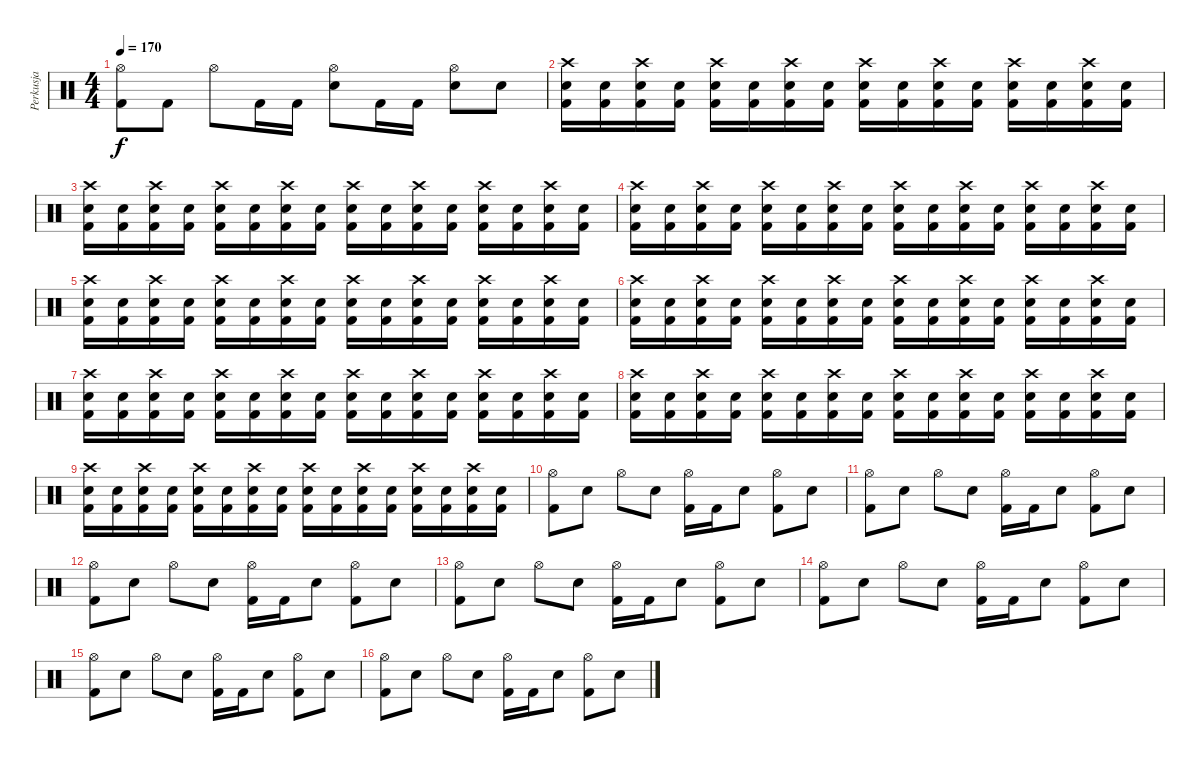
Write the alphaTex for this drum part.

\track ("Perkusja" "Perkusja") {instrument percussion}
\staff {score}
\articulation defaults
\ts (4 4)
\tempo 170
\clef neutral
\ks c
("Hi-Hat (open)" "Kick (hit) 2").8{dy f} "Kick (hit) 2".8 "Hi-Hat (open)".8 "Kick (hit) 2".16 "Kick (hit) 2".16 ("Hi-Hat (open)" "Electric Snare (hit)").8 "Kick (hit) 2".16 "Kick (hit) 2".16 ("Hi-Hat (open)" "Electric Snare (hit)").8 "Electric Snare (hit)".8 |
("Crash high (hit)" "Electric Snare (hit)" "Kick (hit) 2").16 ("Electric Snare (hit)" "Kick (hit) 2").16 ("Crash high (hit)" "Electric Snare (hit)" "Kick (hit) 2").16 ("Electric Snare (hit)" "Kick (hit) 2").16 ("Crash high (hit)" "Electric Snare (hit)" "Kick (hit) 2").16 ("Electric Snare (hit)" "Kick (hit) 2").16 ("Crash high (hit)" "Electric Snare (hit)" "Kick (hit) 2").16 ("Electric Snare (hit)" "Kick (hit) 2").16 ("Crash high (hit)" "Electric Snare (hit)" "Kick (hit) 2").16 ("Electric Snare (hit)" "Kick (hit) 2").16 ("Crash high (hit)" "Electric Snare (hit)" "Kick (hit) 2").16 ("Electric Snare (hit)" "Kick (hit) 2").16 ("Crash high (hit)" "Electric Snare (hit)" "Kick (hit) 2").16 ("Electric Snare (hit)" "Kick (hit) 2").16 ("Crash high (hit)" "Electric Snare (hit)" "Kick (hit) 2").16 ("Electric Snare (hit)" "Kick (hit) 2").16 |
("Crash high (hit)" "Electric Snare (hit)" "Kick (hit) 2").16 ("Electric Snare (hit)" "Kick (hit) 2").16 ("Crash high (hit)" "Electric Snare (hit)" "Kick (hit) 2").16 ("Electric Snare (hit)" "Kick (hit) 2").16 ("Crash high (hit)" "Electric Snare (hit)" "Kick (hit) 2").16 ("Electric Snare (hit)" "Kick (hit) 2").16 ("Crash high (hit)" "Electric Snare (hit)" "Kick (hit) 2").16 ("Electric Snare (hit)" "Kick (hit) 2").16 ("Crash high (hit)" "Electric Snare (hit)" "Kick (hit) 2").16 ("Electric Snare (hit)" "Kick (hit) 2").16 ("Crash high (hit)" "Electric Snare (hit)" "Kick (hit) 2").16 ("Electric Snare (hit)" "Kick (hit) 2").16 ("Crash high (hit)" "Electric Snare (hit)" "Kick (hit) 2").16 ("Electric Snare (hit)" "Kick (hit) 2").16 ("Crash high (hit)" "Electric Snare (hit)" "Kick (hit) 2").16 ("Electric Snare (hit)" "Kick (hit) 2").16 |
("Crash high (hit)" "Electric Snare (hit)" "Kick (hit) 2").16 ("Electric Snare (hit)" "Kick (hit) 2").16 ("Crash high (hit)" "Electric Snare (hit)" "Kick (hit) 2").16 ("Electric Snare (hit)" "Kick (hit) 2").16 ("Crash high (hit)" "Electric Snare (hit)" "Kick (hit) 2").16 ("Electric Snare (hit)" "Kick (hit) 2").16 ("Crash high (hit)" "Electric Snare (hit)" "Kick (hit) 2").16 ("Electric Snare (hit)" "Kick (hit) 2").16 ("Crash high (hit)" "Electric Snare (hit)" "Kick (hit) 2").16 ("Electric Snare (hit)" "Kick (hit) 2").16 ("Crash high (hit)" "Electric Snare (hit)" "Kick (hit) 2").16 ("Electric Snare (hit)" "Kick (hit) 2").16 ("Crash high (hit)" "Electric Snare (hit)" "Kick (hit) 2").16 ("Electric Snare (hit)" "Kick (hit) 2").16 ("Crash high (hit)" "Electric Snare (hit)" "Kick (hit) 2").16 ("Electric Snare (hit)" "Kick (hit) 2").16 |
("Crash high (hit)" "Electric Snare (hit)" "Kick (hit) 2").16 ("Electric Snare (hit)" "Kick (hit) 2").16 ("Crash high (hit)" "Electric Snare (hit)" "Kick (hit) 2").16 ("Electric Snare (hit)" "Kick (hit) 2").16 ("Crash high (hit)" "Electric Snare (hit)" "Kick (hit) 2").16 ("Electric Snare (hit)" "Kick (hit) 2").16 ("Crash high (hit)" "Electric Snare (hit)" "Kick (hit) 2").16 ("Electric Snare (hit)" "Kick (hit) 2").16 ("Crash high (hit)" "Electric Snare (hit)" "Kick (hit) 2").16 ("Electric Snare (hit)" "Kick (hit) 2").16 ("Crash high (hit)" "Electric Snare (hit)" "Kick (hit) 2").16 ("Electric Snare (hit)" "Kick (hit) 2").16 ("Crash high (hit)" "Electric Snare (hit)" "Kick (hit) 2").16 ("Electric Snare (hit)" "Kick (hit) 2").16 ("Crash high (hit)" "Electric Snare (hit)" "Kick (hit) 2").16 ("Electric Snare (hit)" "Kick (hit) 2").16 |
("Crash high (hit)" "Electric Snare (hit)" "Kick (hit) 2").16 ("Electric Snare (hit)" "Kick (hit) 2").16 ("Crash high (hit)" "Electric Snare (hit)" "Kick (hit) 2").16 ("Electric Snare (hit)" "Kick (hit) 2").16 ("Crash high (hit)" "Electric Snare (hit)" "Kick (hit) 2").16 ("Electric Snare (hit)" "Kick (hit) 2").16 ("Crash high (hit)" "Electric Snare (hit)" "Kick (hit) 2").16 ("Electric Snare (hit)" "Kick (hit) 2").16 ("Crash high (hit)" "Electric Snare (hit)" "Kick (hit) 2").16 ("Electric Snare (hit)" "Kick (hit) 2").16 ("Crash high (hit)" "Electric Snare (hit)" "Kick (hit) 2").16 ("Electric Snare (hit)" "Kick (hit) 2").16 ("Crash high (hit)" "Electric Snare (hit)" "Kick (hit) 2").16 ("Electric Snare (hit)" "Kick (hit) 2").16 ("Crash high (hit)" "Electric Snare (hit)" "Kick (hit) 2").16 ("Electric Snare (hit)" "Kick (hit) 2").16 |
("Crash high (hit)" "Electric Snare (hit)" "Kick (hit) 2").16 ("Electric Snare (hit)" "Kick (hit) 2").16 ("Crash high (hit)" "Electric Snare (hit)" "Kick (hit) 2").16 ("Electric Snare (hit)" "Kick (hit) 2").16 ("Crash high (hit)" "Electric Snare (hit)" "Kick (hit) 2").16 ("Electric Snare (hit)" "Kick (hit) 2").16 ("Crash high (hit)" "Electric Snare (hit)" "Kick (hit) 2").16 ("Electric Snare (hit)" "Kick (hit) 2").16 ("Crash high (hit)" "Electric Snare (hit)" "Kick (hit) 2").16 ("Electric Snare (hit)" "Kick (hit) 2").16 ("Crash high (hit)" "Electric Snare (hit)" "Kick (hit) 2").16 ("Electric Snare (hit)" "Kick (hit) 2").16 ("Crash high (hit)" "Electric Snare (hit)" "Kick (hit) 2").16 ("Electric Snare (hit)" "Kick (hit) 2").16 ("Crash high (hit)" "Electric Snare (hit)" "Kick (hit) 2").16 ("Electric Snare (hit)" "Kick (hit) 2").16 |
("Crash high (hit)" "Electric Snare (hit)" "Kick (hit) 2").16 ("Electric Snare (hit)" "Kick (hit) 2").16 ("Crash high (hit)" "Electric Snare (hit)" "Kick (hit) 2").16 ("Electric Snare (hit)" "Kick (hit) 2").16 ("Crash high (hit)" "Electric Snare (hit)" "Kick (hit) 2").16 ("Electric Snare (hit)" "Kick (hit) 2").16 ("Crash high (hit)" "Electric Snare (hit)" "Kick (hit) 2").16 ("Electric Snare (hit)" "Kick (hit) 2").16 ("Crash high (hit)" "Electric Snare (hit)" "Kick (hit) 2").16 ("Electric Snare (hit)" "Kick (hit) 2").16 ("Crash high (hit)" "Electric Snare (hit)" "Kick (hit) 2").16 ("Electric Snare (hit)" "Kick (hit) 2").16 ("Crash high (hit)" "Electric Snare (hit)" "Kick (hit) 2").16 ("Electric Snare (hit)" "Kick (hit) 2").16 ("Crash high (hit)" "Electric Snare (hit)" "Kick (hit) 2").16 ("Electric Snare (hit)" "Kick (hit) 2").16 |
("Crash high (hit)" "Electric Snare (hit)" "Kick (hit) 2").16 ("Electric Snare (hit)" "Kick (hit) 2").16 ("Crash high (hit)" "Electric Snare (hit)" "Kick (hit) 2").16 ("Electric Snare (hit)" "Kick (hit) 2").16 ("Crash high (hit)" "Electric Snare (hit)" "Kick (hit) 2").16 ("Electric Snare (hit)" "Kick (hit) 2").16 ("Crash high (hit)" "Electric Snare (hit)" "Kick (hit) 2").16 ("Electric Snare (hit)" "Kick (hit) 2").16 ("Crash high (hit)" "Electric Snare (hit)" "Kick (hit) 2").16 ("Electric Snare (hit)" "Kick (hit) 2").16 ("Crash high (hit)" "Electric Snare (hit)" "Kick (hit) 2").16 ("Electric Snare (hit)" "Kick (hit) 2").16 ("Crash high (hit)" "Electric Snare (hit)" "Kick (hit) 2").16 ("Electric Snare (hit)" "Kick (hit) 2").16 ("Crash high (hit)" "Electric Snare (hit)" "Kick (hit) 2").16 ("Electric Snare (hit)" "Kick (hit) 2").16 |
("Hi-Hat (open)" "Kick (hit) 2").8 "Electric Snare (hit)".8 "Hi-Hat (open)".8 "Electric Snare (hit)".8 ("Hi-Hat (open)" "Kick (hit) 2").16 "Kick (hit) 2".16 "Electric Snare (hit)".8 ("Hi-Hat (open)" "Kick (hit) 2").8 "Electric Snare (hit)".8 |
("Hi-Hat (open)" "Kick (hit) 2").8 "Electric Snare (hit)".8 "Hi-Hat (open)".8 "Electric Snare (hit)".8 ("Hi-Hat (open)" "Kick (hit) 2").16 "Kick (hit) 2".16 "Electric Snare (hit)".8 ("Hi-Hat (open)" "Kick (hit) 2").8 "Electric Snare (hit)".8 |
("Hi-Hat (open)" "Kick (hit) 2").8 "Electric Snare (hit)".8 "Hi-Hat (open)".8 "Electric Snare (hit)".8 ("Hi-Hat (open)" "Kick (hit) 2").16 "Kick (hit) 2".16 "Electric Snare (hit)".8 ("Hi-Hat (open)" "Kick (hit) 2").8 "Electric Snare (hit)".8 |
("Hi-Hat (open)" "Kick (hit) 2").8 "Electric Snare (hit)".8 "Hi-Hat (open)".8 "Electric Snare (hit)".8 ("Hi-Hat (open)" "Kick (hit) 2").16 "Kick (hit) 2".16 "Electric Snare (hit)".8 ("Hi-Hat (open)" "Kick (hit) 2").8 "Electric Snare (hit)".8 |
("Hi-Hat (open)" "Kick (hit) 2").8 "Electric Snare (hit)".8 "Hi-Hat (open)".8 "Electric Snare (hit)".8 ("Hi-Hat (open)" "Kick (hit) 2").16 "Kick (hit) 2".16 "Electric Snare (hit)".8 ("Hi-Hat (open)" "Kick (hit) 2").8 "Electric Snare (hit)".8 |
("Hi-Hat (open)" "Kick (hit) 2").8 "Electric Snare (hit)".8 "Hi-Hat (open)".8 "Electric Snare (hit)".8 ("Hi-Hat (open)" "Kick (hit) 2").16 "Kick (hit) 2".16 "Electric Snare (hit)".8 ("Hi-Hat (open)" "Kick (hit) 2").8 "Electric Snare (hit)".8 |
("Hi-Hat (open)" "Kick (hit) 2").8 "Electric Snare (hit)".8 "Hi-Hat (open)".8 "Electric Snare (hit)".8 ("Hi-Hat (open)" "Kick (hit) 2").16 "Kick (hit) 2".16 "Electric Snare (hit)".8 ("Hi-Hat (open)" "Kick (hit) 2").8 "Electric Snare (hit)".8
